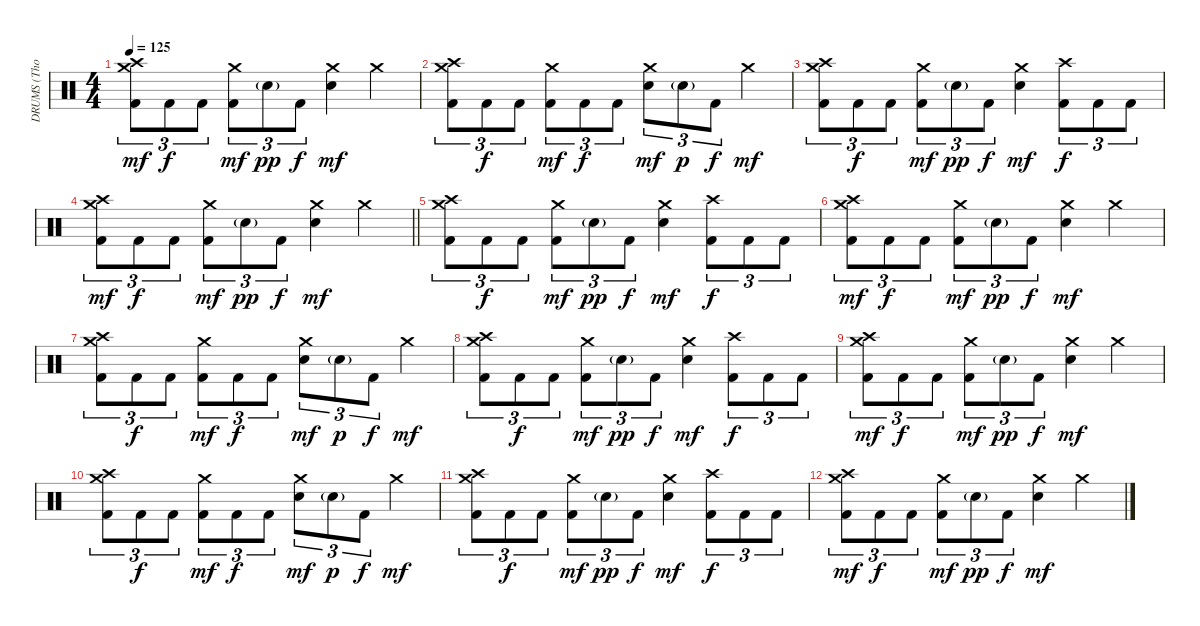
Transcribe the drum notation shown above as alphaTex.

\track ("DRUMS (Thomas Haake)" "DRUMS (Tho") {instrument percussion}
\staff {score}
\articulation defaults
\ts (4 4)
\tempo 125
\clef neutral
\ks c
("Crash medium (hit)" "Crash high (hit)" "Kick (hit) 2").8{tu (3 2) dy mf volume 6} "Kick (hit) 2".8{tu (3 2) dy f} "Kick (hit) 2".8{tu (3 2)} ("Crash medium (hit)" "Kick (hit) 2").8{tu (3 2) dy mf} "Electric Snare (hit)"{g}.8{tu (3 2) dy pp} "Kick (hit) 2".8{tu (3 2) dy f} ("Crash medium (hit)" "Electric Snare (hit)").4{dy mf} "Crash medium (hit)".4 |
("Crash medium (hit)" "Crash high (hit)" "Kick (hit) 2").8{tu (3 2)} "Kick (hit) 2".8{tu (3 2) dy f} "Kick (hit) 2".8{tu (3 2)} ("Crash medium (hit)" "Kick (hit) 2").8{tu (3 2) dy mf} "Kick (hit) 2".8{tu (3 2) dy f} "Kick (hit) 2".8{tu (3 2)} ("Crash medium (hit)" "Electric Snare (hit)").8{tu (3 2) dy mf} "Electric Snare (hit)"{g}.8{tu (3 2) dy p} "Kick (hit) 2".8{tu (3 2) dy f} "Crash medium (hit)".4{dy mf} |
("Crash medium (hit)" "Crash high (hit)" "Kick (hit) 2").8{tu (3 2)} "Kick (hit) 2".8{tu (3 2) dy f} "Kick (hit) 2".8{tu (3 2)} ("Crash medium (hit)" "Kick (hit) 2").8{tu (3 2) dy mf} "Electric Snare (hit)"{g}.8{tu (3 2) dy pp} "Kick (hit) 2".8{tu (3 2) dy f} ("Crash medium (hit)" "Electric Snare (hit)").4{dy mf} ("Crash high (hit)" "Kick (hit) 2").8{tu (3 2) dy f} "Kick (hit) 2".8{tu (3 2)} "Kick (hit) 2".8{tu (3 2)} |
\barLineRight lightlight
("Crash medium (hit)" "Crash high (hit)" "Kick (hit) 2").8{tu (3 2) dy mf} "Kick (hit) 2".8{tu (3 2) dy f} "Kick (hit) 2".8{tu (3 2)} ("Crash medium (hit)" "Kick (hit) 2").8{tu (3 2) dy mf} "Electric Snare (hit)"{g}.8{tu (3 2) dy pp} "Kick (hit) 2".8{tu (3 2) dy f} ("Crash medium (hit)" "Electric Snare (hit)").4{dy mf} "Crash medium (hit)".4 |
("Crash medium (hit)" "Crash high (hit)" "Kick (hit) 2").8{tu (3 2) volume 3} "Kick (hit) 2".8{tu (3 2) dy f} "Kick (hit) 2".8{tu (3 2)} ("Crash medium (hit)" "Kick (hit) 2").8{tu (3 2) dy mf} "Electric Snare (hit)"{g}.8{tu (3 2) dy pp} "Kick (hit) 2".8{tu (3 2) dy f} ("Crash medium (hit)" "Electric Snare (hit)").4{dy mf} ("Crash high (hit)" "Kick (hit) 2").8{tu (3 2) dy f} "Kick (hit) 2".8{tu (3 2)} "Kick (hit) 2".8{tu (3 2)} |
("Crash medium (hit)" "Crash high (hit)" "Kick (hit) 2").8{tu (3 2) dy mf} "Kick (hit) 2".8{tu (3 2) dy f} "Kick (hit) 2".8{tu (3 2)} ("Crash medium (hit)" "Kick (hit) 2").8{tu (3 2) dy mf} "Electric Snare (hit)"{g}.8{tu (3 2) dy pp} "Kick (hit) 2".8{tu (3 2) dy f} ("Crash medium (hit)" "Electric Snare (hit)").4{dy mf} "Crash medium (hit)".4 |
("Crash medium (hit)" "Crash high (hit)" "Kick (hit) 2").8{tu (3 2)} "Kick (hit) 2".8{tu (3 2) dy f} "Kick (hit) 2".8{tu (3 2)} ("Crash medium (hit)" "Kick (hit) 2").8{tu (3 2) dy mf} "Kick (hit) 2".8{tu (3 2) dy f} "Kick (hit) 2".8{tu (3 2)} ("Crash medium (hit)" "Electric Snare (hit)").8{tu (3 2) dy mf} "Electric Snare (hit)"{g}.8{tu (3 2) dy p} "Kick (hit) 2".8{tu (3 2) dy f} "Crash medium (hit)".4{dy mf} |
("Crash medium (hit)" "Crash high (hit)" "Kick (hit) 2").8{tu (3 2)} "Kick (hit) 2".8{tu (3 2) dy f} "Kick (hit) 2".8{tu (3 2)} ("Crash medium (hit)" "Kick (hit) 2").8{tu (3 2) dy mf} "Electric Snare (hit)"{g}.8{tu (3 2) dy pp} "Kick (hit) 2".8{tu (3 2) dy f} ("Crash medium (hit)" "Electric Snare (hit)").4{dy mf} ("Crash high (hit)" "Kick (hit) 2").8{tu (3 2) dy f} "Kick (hit) 2".8{tu (3 2)} "Kick (hit) 2".8{tu (3 2)} |
("Crash medium (hit)" "Crash high (hit)" "Kick (hit) 2").8{tu (3 2) dy mf volume 0} "Kick (hit) 2".8{tu (3 2) dy f} "Kick (hit) 2".8{tu (3 2)} ("Crash medium (hit)" "Kick (hit) 2").8{tu (3 2) dy mf} "Electric Snare (hit)"{g}.8{tu (3 2) dy pp} "Kick (hit) 2".8{tu (3 2) dy f} ("Crash medium (hit)" "Electric Snare (hit)").4{dy mf} "Crash medium (hit)".4 |
("Crash medium (hit)" "Crash high (hit)" "Kick (hit) 2").8{tu (3 2)} "Kick (hit) 2".8{tu (3 2) dy f} "Kick (hit) 2".8{tu (3 2)} ("Crash medium (hit)" "Kick (hit) 2").8{tu (3 2) dy mf} "Kick (hit) 2".8{tu (3 2) dy f} "Kick (hit) 2".8{tu (3 2)} ("Crash medium (hit)" "Electric Snare (hit)").8{tu (3 2) dy mf} "Electric Snare (hit)"{g}.8{tu (3 2) dy p} "Kick (hit) 2".8{tu (3 2) dy f} "Crash medium (hit)".4{dy mf} |
("Crash medium (hit)" "Crash high (hit)" "Kick (hit) 2").8{tu (3 2)} "Kick (hit) 2".8{tu (3 2) dy f} "Kick (hit) 2".8{tu (3 2)} ("Crash medium (hit)" "Kick (hit) 2").8{tu (3 2) dy mf} "Electric Snare (hit)"{g}.8{tu (3 2) dy pp} "Kick (hit) 2".8{tu (3 2) dy f} ("Crash medium (hit)" "Electric Snare (hit)").4{dy mf} ("Crash high (hit)" "Kick (hit) 2").8{tu (3 2) dy f} "Kick (hit) 2".8{tu (3 2)} "Kick (hit) 2".8{tu (3 2)} |
("Crash medium (hit)" "Crash high (hit)" "Kick (hit) 2").8{tu (3 2) dy mf} "Kick (hit) 2".8{tu (3 2) dy f} "Kick (hit) 2".8{tu (3 2)} ("Crash medium (hit)" "Kick (hit) 2").8{tu (3 2) dy mf} "Electric Snare (hit)"{g}.8{tu (3 2) dy pp} "Kick (hit) 2".8{tu (3 2) dy f} ("Crash medium (hit)" "Electric Snare (hit)").4{dy mf} "Crash medium (hit)".4
